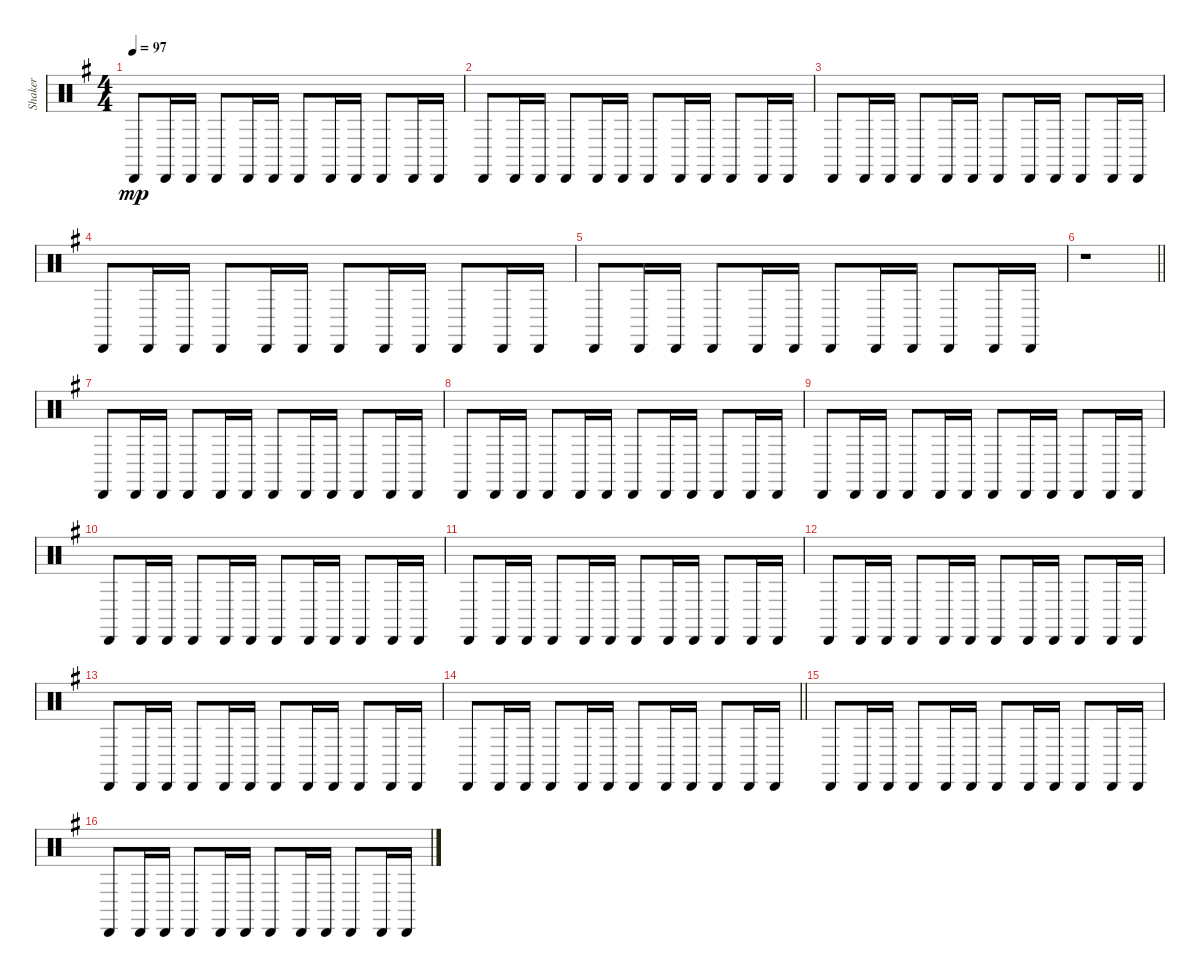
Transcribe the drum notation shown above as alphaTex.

\track ("Shaker" "Shaker") {instrument percussion}
\staff {score}
\articulation defaults
\ts (4 4)
\tempo 97
\clef neutral
\ks g "Cabasa (hit)".8{dy mp} "Cabasa (hit)".16 "Cabasa (hit)".16 "Cabasa (hit)".8 "Cabasa (hit)".16 "Cabasa (hit)".16 "Cabasa (hit)".8 "Cabasa (hit)".16 "Cabasa (hit)".16 "Cabasa (hit)".8 "Cabasa (hit)".16 "Cabasa (hit)".16
|
"Cabasa (hit)".8 "Cabasa (hit)".16 "Cabasa (hit)".16 "Cabasa (hit)".8 "Cabasa (hit)".16 "Cabasa (hit)".16 "Cabasa (hit)".8 "Cabasa (hit)".16 "Cabasa (hit)".16 "Cabasa (hit)".8 "Cabasa (hit)".16 "Cabasa (hit)".16 |
"Cabasa (hit)".8 "Cabasa (hit)".16 "Cabasa (hit)".16 "Cabasa (hit)".8 "Cabasa (hit)".16 "Cabasa (hit)".16 "Cabasa (hit)".8 "Cabasa (hit)".16 "Cabasa (hit)".16 "Cabasa (hit)".8 "Cabasa (hit)".16 "Cabasa (hit)".16 |
"Cabasa (hit)".8 "Cabasa (hit)".16 "Cabasa (hit)".16 "Cabasa (hit)".8 "Cabasa (hit)".16 "Cabasa (hit)".16 "Cabasa (hit)".8 "Cabasa (hit)".16 "Cabasa (hit)".16 "Cabasa (hit)".8 "Cabasa (hit)".16 "Cabasa (hit)".16 |
"Cabasa (hit)".8 "Cabasa (hit)".16 "Cabasa (hit)".16 "Cabasa (hit)".8 "Cabasa (hit)".16 "Cabasa (hit)".16 "Cabasa (hit)".8 "Cabasa (hit)".16 "Cabasa (hit)".16 "Cabasa (hit)".8 "Cabasa (hit)".16 "Cabasa (hit)".16 |
\barLineRight lightlight
r.1 |
"Cabasa (hit)".8 "Cabasa (hit)".16 "Cabasa (hit)".16 "Cabasa (hit)".8 "Cabasa (hit)".16 "Cabasa (hit)".16 "Cabasa (hit)".8 "Cabasa (hit)".16 "Cabasa (hit)".16 "Cabasa (hit)".8 "Cabasa (hit)".16 "Cabasa (hit)".16 |
"Cabasa (hit)".8 "Cabasa (hit)".16 "Cabasa (hit)".16 "Cabasa (hit)".8 "Cabasa (hit)".16 "Cabasa (hit)".16 "Cabasa (hit)".8 "Cabasa (hit)".16 "Cabasa (hit)".16 "Cabasa (hit)".8 "Cabasa (hit)".16 "Cabasa (hit)".16 |
"Cabasa (hit)".8 "Cabasa (hit)".16 "Cabasa (hit)".16 "Cabasa (hit)".8 "Cabasa (hit)".16 "Cabasa (hit)".16 "Cabasa (hit)".8 "Cabasa (hit)".16 "Cabasa (hit)".16 "Cabasa (hit)".8 "Cabasa (hit)".16 "Cabasa (hit)".16 |
"Cabasa (hit)".8 "Cabasa (hit)".16 "Cabasa (hit)".16 "Cabasa (hit)".8 "Cabasa (hit)".16 "Cabasa (hit)".16 "Cabasa (hit)".8 "Cabasa (hit)".16 "Cabasa (hit)".16 "Cabasa (hit)".8 "Cabasa (hit)".16 "Cabasa (hit)".16 |
"Cabasa (hit)".8 "Cabasa (hit)".16 "Cabasa (hit)".16 "Cabasa (hit)".8 "Cabasa (hit)".16 "Cabasa (hit)".16 "Cabasa (hit)".8 "Cabasa (hit)".16 "Cabasa (hit)".16 "Cabasa (hit)".8 "Cabasa (hit)".16 "Cabasa (hit)".16 |
"Cabasa (hit)".8 "Cabasa (hit)".16 "Cabasa (hit)".16 "Cabasa (hit)".8 "Cabasa (hit)".16 "Cabasa (hit)".16 "Cabasa (hit)".8 "Cabasa (hit)".16 "Cabasa (hit)".16 "Cabasa (hit)".8 "Cabasa (hit)".16 "Cabasa (hit)".16 |
"Cabasa (hit)".8 "Cabasa (hit)".16 "Cabasa (hit)".16 "Cabasa (hit)".8 "Cabasa (hit)".16 "Cabasa (hit)".16 "Cabasa (hit)".8 "Cabasa (hit)".16 "Cabasa (hit)".16 "Cabasa (hit)".8 "Cabasa (hit)".16 "Cabasa (hit)".16 |
\barLineRight lightlight "Cabasa (hit)".8 "Cabasa (hit)".16 "Cabasa (hit)".16 "Cabasa (hit)".8 "Cabasa (hit)".16 "Cabasa (hit)".16 "Cabasa (hit)".8 "Cabasa (hit)".16 "Cabasa (hit)".16 "Cabasa (hit)".8 "Cabasa (hit)".16 "Cabasa (hit)".16
|
"Cabasa (hit)".8 "Cabasa (hit)".16 "Cabasa (hit)".16 "Cabasa (hit)".8 "Cabasa (hit)".16 "Cabasa (hit)".16 "Cabasa (hit)".8 "Cabasa (hit)".16 "Cabasa (hit)".16 "Cabasa (hit)".8 "Cabasa (hit)".16 "Cabasa (hit)".16 |
"Cabasa (hit)".8 "Cabasa (hit)".16 "Cabasa (hit)".16 "Cabasa (hit)".8 "Cabasa (hit)".16 "Cabasa (hit)".16 "Cabasa (hit)".8 "Cabasa (hit)".16 "Cabasa (hit)".16 "Cabasa (hit)".8 "Cabasa (hit)".16 "Cabasa (hit)".16
